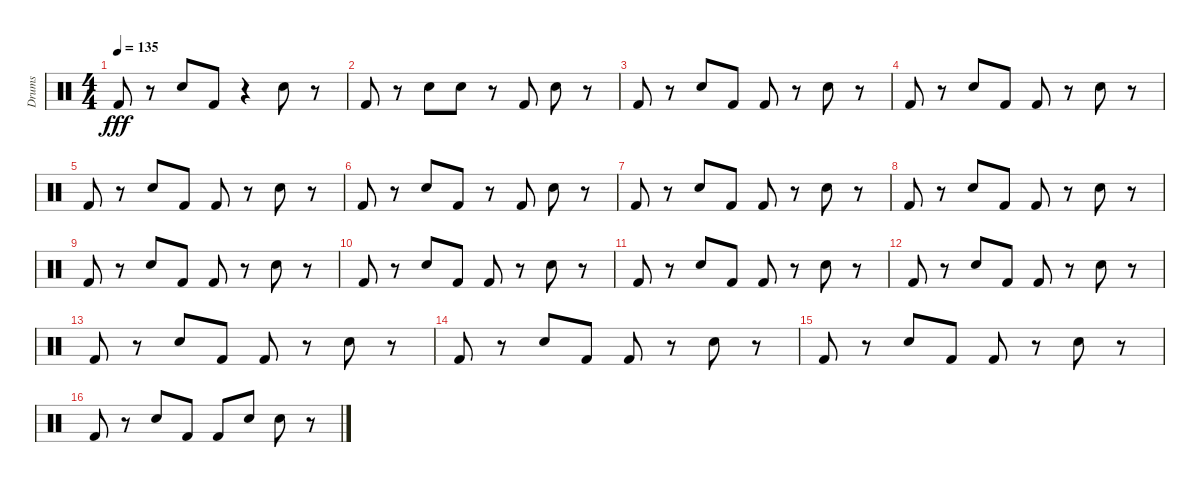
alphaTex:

\track ("Drums" "Drums") {instrument percussion}
\staff {score}
\articulation defaults
\ts (4 4)
\tempo 135
\clef neutral
\ks c "Kick (hit) 2".8{dy fff}
r.8 "Snare (hit) 2".8 "Kick (hit) 2".8 r.4 "Snare (hit) 2".8 r.8 |
"Kick (hit) 2".8 r.8 "Snare (hit) 2".8 "Snare (hit) 2".8 r.8 "Kick (hit) 2".8 "Snare (hit) 2".8 r.8 |
"Kick (hit) 2".8 r.8 "Snare (hit) 2".8 "Kick (hit) 2".8 "Kick (hit) 2".8 r.8 "Snare (hit) 2".8 r.8 |
"Kick (hit) 2".8 r.8 "Snare (hit) 2".8 "Kick (hit) 2".8 "Kick (hit) 2".8 r.8 "Snare (hit) 2".8 r.8 |
"Kick (hit) 2".8 r.8 "Snare (hit) 2".8 "Kick (hit) 2".8 "Kick (hit) 2".8 r.8 "Snare (hit) 2".8 r.8 |
"Kick (hit) 2".8 r.8 "Snare (hit) 2".8 "Kick (hit) 2".8 r.8 "Kick (hit) 2".8 "Snare (hit) 2".8 r.8 |
"Kick (hit) 2".8 r.8 "Snare (hit) 2".8 "Kick (hit) 2".8 "Kick (hit) 2".8 r.8 "Snare (hit) 2".8 r.8 |
"Kick (hit) 2".8 r.8 "Snare (hit) 2".8 "Kick (hit) 2".8 "Kick (hit) 2".8 r.8 "Snare (hit) 2".8 r.8 |
"Kick (hit) 2".8 r.8 "Snare (hit) 2".8 "Kick (hit) 2".8 "Kick (hit) 2".8 r.8 "Snare (hit) 2".8 r.8 |
"Kick (hit) 2".8 r.8 "Snare (hit) 2".8 "Kick (hit) 2".8 "Kick (hit) 2".8 r.8 "Snare (hit) 2".8 r.8 |
"Kick (hit) 2".8 r.8 "Snare (hit) 2".8 "Kick (hit) 2".8 "Kick (hit) 2".8 r.8 "Snare (hit) 2".8 r.8 |
"Kick (hit) 2".8 r.8 "Snare (hit) 2".8 "Kick (hit) 2".8 "Kick (hit) 2".8 r.8 "Snare (hit) 2".8 r.8 |
"Kick (hit) 2".8 r.8 "Snare (hit) 2".8 "Kick (hit) 2".8 "Kick (hit) 2".8 r.8 "Snare (hit) 2".8 r.8 |
"Kick (hit) 2".8 r.8 "Snare (hit) 2".8 "Kick (hit) 2".8 "Kick (hit) 2".8 r.8 "Snare (hit) 2".8 r.8 |
"Kick (hit) 2".8 r.8 "Snare (hit) 2".8 "Kick (hit) 2".8 "Kick (hit) 2".8 r.8 "Snare (hit) 2".8 r.8 |
"Kick (hit) 2".8 r.8 "Snare (hit) 2".8 "Kick (hit) 2".8 "Kick (hit) 2".8 "Snare (hit) 2".8 "Snare (hit) 2".8 r.8
